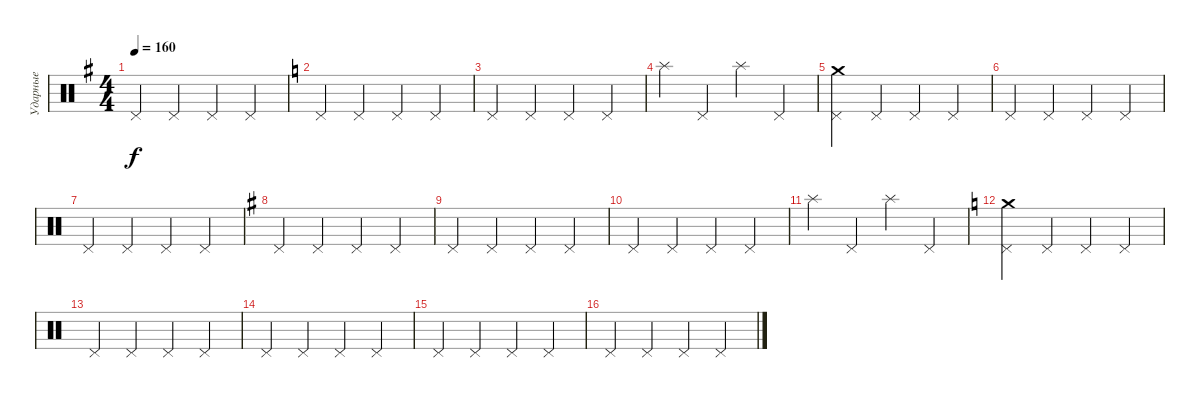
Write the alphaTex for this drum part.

\track ("Ударные" "Ударные") {instrument percussion}
\staff {score}
\articulation defaults
\ts (4 4)
\tempo 160
\clef neutral
\ks g "Pedal Hi-Hat (hit)".4{dy f} "Pedal Hi-Hat (hit)".4 "Pedal Hi-Hat (hit)".4 "Pedal Hi-Hat (hit)".4
|
\ks c "Pedal Hi-Hat (hit)".4 "Pedal Hi-Hat (hit)".4 "Pedal Hi-Hat (hit)".4 "Pedal Hi-Hat (hit)".4
|
"Pedal Hi-Hat (hit)".4 "Pedal Hi-Hat (hit)".4 "Pedal Hi-Hat (hit)".4 "Pedal Hi-Hat (hit)".4 |
"Splash (hit)".4 "Pedal Hi-Hat (hit)".4 "Splash (hit)".4 "Pedal Hi-Hat (hit)".4 |
("Pedal Hi-Hat (hit)" "Crash medium (hit)").4 "Pedal Hi-Hat (hit)".4 "Pedal Hi-Hat (hit)".4 "Pedal Hi-Hat (hit)".4 |
"Pedal Hi-Hat (hit)".4 "Pedal Hi-Hat (hit)".4 "Pedal Hi-Hat (hit)".4 "Pedal Hi-Hat (hit)".4 |
"Pedal Hi-Hat (hit)".4 "Pedal Hi-Hat (hit)".4 "Pedal Hi-Hat (hit)".4 "Pedal Hi-Hat (hit)".4 |
\ks g "Pedal Hi-Hat (hit)".4 "Pedal Hi-Hat (hit)".4 "Pedal Hi-Hat (hit)".4 "Pedal Hi-Hat (hit)".4
|
"Pedal Hi-Hat (hit)".4 "Pedal Hi-Hat (hit)".4 "Pedal Hi-Hat (hit)".4 "Pedal Hi-Hat (hit)".4 |
"Pedal Hi-Hat (hit)".4 "Pedal Hi-Hat (hit)".4 "Pedal Hi-Hat (hit)".4 "Pedal Hi-Hat (hit)".4 |
"Splash (hit)".4 "Pedal Hi-Hat (hit)".4 "Splash (hit)".4 "Pedal Hi-Hat (hit)".4 |
\ks c
("Pedal Hi-Hat (hit)" "Crash medium (hit)").4 "Pedal Hi-Hat (hit)".4 "Pedal Hi-Hat (hit)".4 "Pedal Hi-Hat (hit)".4 |
"Pedal Hi-Hat (hit)".4 "Pedal Hi-Hat (hit)".4 "Pedal Hi-Hat (hit)".4 "Pedal Hi-Hat (hit)".4 |
"Pedal Hi-Hat (hit)".4 "Pedal Hi-Hat (hit)".4 "Pedal Hi-Hat (hit)".4 "Pedal Hi-Hat (hit)".4 |
"Pedal Hi-Hat (hit)".4 "Pedal Hi-Hat (hit)".4 "Pedal Hi-Hat (hit)".4 "Pedal Hi-Hat (hit)".4 |
"Pedal Hi-Hat (hit)".4 "Pedal Hi-Hat (hit)".4 "Pedal Hi-Hat (hit)".4 "Pedal Hi-Hat (hit)".4
